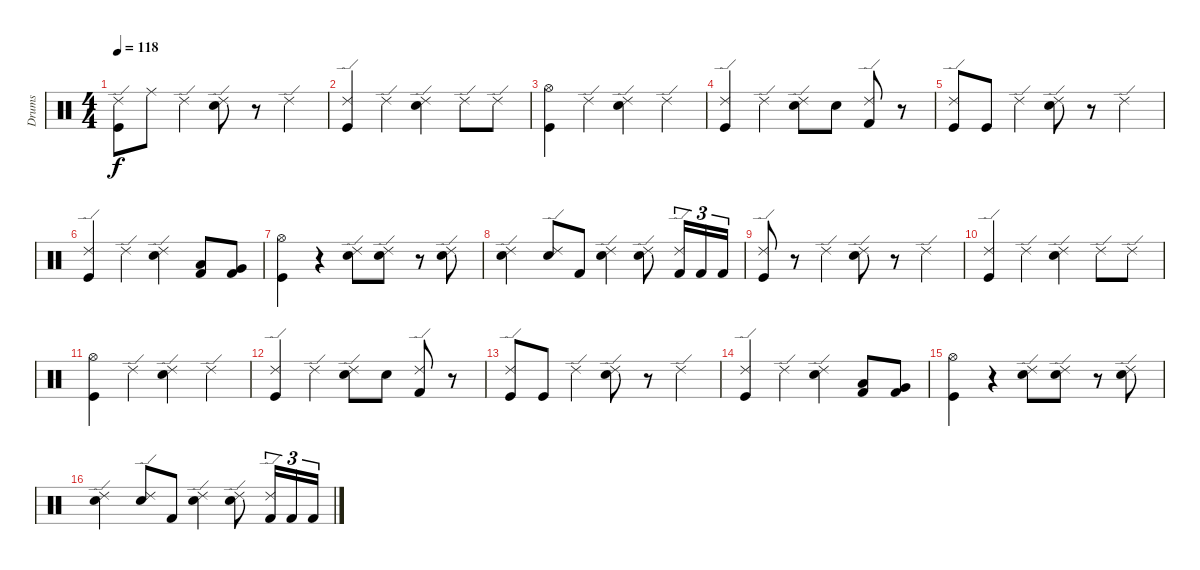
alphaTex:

\track ("Drums" "Drums") {instrument percussion}
\staff {score}
\articulation defaults
\ts (4 4)
\tempo 118
\clef neutral
\ks c
("Ride (edge) 2" "Kick (hit)").8{dy f} "Ride (middle)".8 "Ride (edge) 2".4 ("Ride (edge) 2" "Snare (hit) 2").8 r.8 "Ride (edge) 2".4 |
("Ride (edge) 2" "Kick (hit)").4 "Ride (edge) 2".4 ("Ride (edge) 2" "Snare (hit) 2").4 "Ride (edge) 2".8 "Ride (edge) 2".8 |
("Hi-Hat (open)" "Kick (hit)").4 "Ride (edge) 2".4 ("Ride (edge) 2" "Snare (hit) 2").4 "Ride (edge) 2".4 |
("Ride (edge) 2" "Kick (hit)").4 "Ride (edge) 2".4 ("Ride (edge) 2" "Snare (hit) 2").8 "Snare (hit) 2".8 ("Ride (edge) 2" "Kick (hit) 2").8 r.8 |
("Ride (edge) 2" "Kick (hit)").8 "Kick (hit)".8 "Ride (edge) 2".4 ("Ride (edge) 2" "Snare (hit) 2").8 r.8 "Ride (edge) 2".4 |
("Ride (edge) 2" "Kick (hit)").4 "Ride (edge) 2".4 ("Ride (edge) 2" "Snare (hit) 2").4 ("Kick (hit) 2" "Low Tom (hit)").8 ("Kick (hit) 2" "Very Low Tom (hit)").8 |
("Hi-Hat (open)" "Kick (hit)").4 r.4 ("Ride (edge) 2" "Snare (hit) 2").8 ("Ride (edge) 2" "Snare (hit) 2").8 r.8 ("Ride (edge) 2" "Snare (hit) 2").8 |
("Ride (edge) 2" "Snare (hit) 2").4 ("Ride (edge) 2" "Snare (hit) 2").8 "Kick (hit) 2".8 ("Ride (edge) 2" "Snare (hit) 2").4 ("Ride (edge) 2" "Snare (hit) 2").8 ("Ride (edge) 2" "Kick (hit) 2").16{tu (3 2)} "Kick (hit) 2".16{tu (3 2)} "Kick (hit) 2".16{tu (3 2)} |
("Ride (edge) 2" "Kick (hit)").8 r.8 "Ride (edge) 2".4 ("Ride (edge) 2" "Snare (hit) 2").8 r.8 "Ride (edge) 2".4 |
("Ride (edge) 2" "Kick (hit)").4 "Ride (edge) 2".4 ("Ride (edge) 2" "Snare (hit) 2").4 "Ride (edge) 2".8 "Ride (edge) 2".8 |
("Hi-Hat (open)" "Kick (hit)").4 "Ride (edge) 2".4 ("Ride (edge) 2" "Snare (hit) 2").4 "Ride (edge) 2".4 |
("Ride (edge) 2" "Kick (hit)").4 "Ride (edge) 2".4 ("Ride (edge) 2" "Snare (hit) 2").8 "Snare (hit) 2".8 ("Ride (edge) 2" "Kick (hit) 2").8 r.8 |
("Ride (edge) 2" "Kick (hit)").8 "Kick (hit)".8 "Ride (edge) 2".4 ("Ride (edge) 2" "Snare (hit) 2").8 r.8 "Ride (edge) 2".4 |
("Ride (edge) 2" "Kick (hit)").4 "Ride (edge) 2".4 ("Ride (edge) 2" "Snare (hit) 2").4 ("Kick (hit) 2" "Low Tom (hit)").8 ("Kick (hit) 2" "Very Low Tom (hit)").8 |
("Hi-Hat (open)" "Kick (hit)").4 r.4 ("Ride (edge) 2" "Snare (hit) 2").8 ("Ride (edge) 2" "Snare (hit) 2").8 r.8 ("Ride (edge) 2" "Snare (hit) 2").8 |
("Ride (edge) 2" "Snare (hit) 2").4 ("Ride (edge) 2" "Snare (hit) 2").8 "Kick (hit) 2".8 ("Ride (edge) 2" "Snare (hit) 2").4 ("Ride (edge) 2" "Snare (hit) 2").8 ("Ride (edge) 2" "Kick (hit) 2").16{tu (3 2)} "Kick (hit) 2".16{tu (3 2)} "Kick (hit) 2".16{tu (3 2)}
